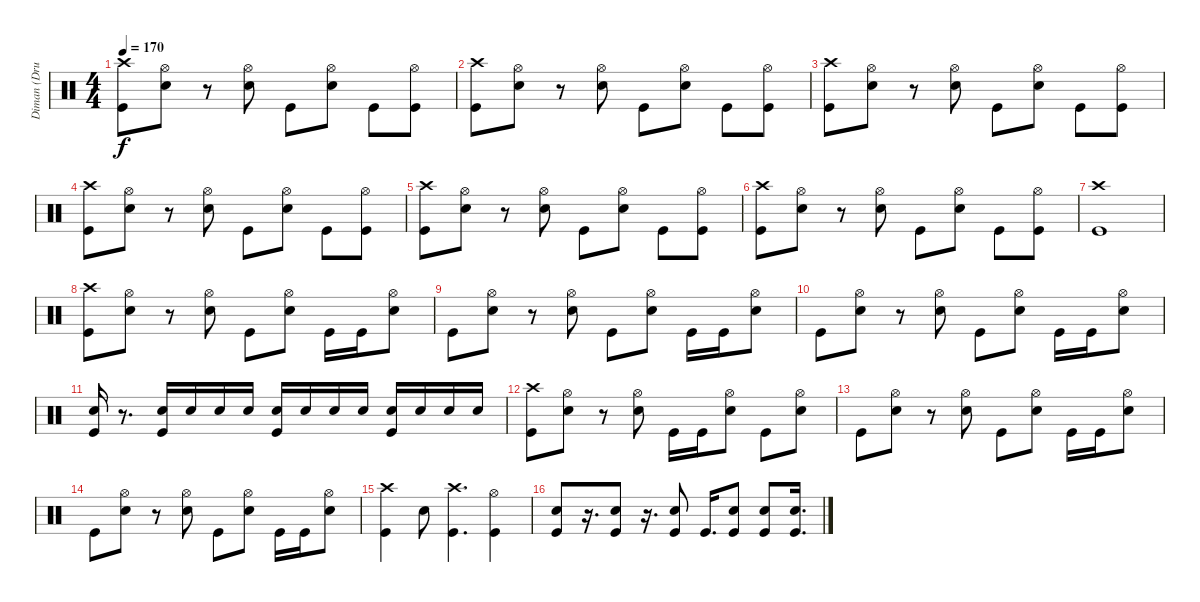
\track ("Diman (Drums)" "Diman (Dru") {instrument percussion}
\staff {score}
\articulation defaults
\ts (4 4)
\tempo 170
\clef neutral
\ks c
("Kick (hit)" "Crash high (hit)").8{dy f} ("Snare (hit) 2" "Hi-Hat (open)").8 r.8 ("Snare (hit) 2" "Hi-Hat (open)").8 "Kick (hit)".8 ("Snare (hit) 2" "Hi-Hat (open)").8 "Kick (hit)".8 ("Hi-Hat (open)" "Kick (hit)").8 |
("Kick (hit)" "Crash high (hit)").8 ("Snare (hit) 2" "Hi-Hat (open)").8 r.8 ("Snare (hit) 2" "Hi-Hat (open)").8 "Kick (hit)".8 ("Snare (hit) 2" "Hi-Hat (open)").8 "Kick (hit)".8 ("Hi-Hat (open)" "Kick (hit)").8 |
("Kick (hit)" "Crash high (hit)").8 ("Snare (hit) 2" "Hi-Hat (open)").8 r.8 ("Snare (hit) 2" "Hi-Hat (open)").8 "Kick (hit)".8 ("Snare (hit) 2" "Hi-Hat (open)").8 "Kick (hit)".8 ("Hi-Hat (open)" "Kick (hit)").8 |
("Kick (hit)" "Crash high (hit)").8 ("Snare (hit) 2" "Hi-Hat (open)").8 r.8 ("Snare (hit) 2" "Hi-Hat (open)").8 "Kick (hit)".8 ("Snare (hit) 2" "Hi-Hat (open)").8 "Kick (hit)".8 ("Hi-Hat (open)" "Kick (hit)").8 |
("Kick (hit)" "Crash high (hit)").8 ("Snare (hit) 2" "Hi-Hat (open)").8 r.8 ("Snare (hit) 2" "Hi-Hat (open)").8 "Kick (hit)".8 ("Snare (hit) 2" "Hi-Hat (open)").8 "Kick (hit)".8 ("Hi-Hat (open)" "Kick (hit)").8 |
("Kick (hit)" "Crash high (hit)").8 ("Snare (hit) 2" "Hi-Hat (open)").8 r.8 ("Snare (hit) 2" "Hi-Hat (open)").8 "Kick (hit)".8 ("Snare (hit) 2" "Hi-Hat (open)").8 "Kick (hit)".8 ("Hi-Hat (open)" "Kick (hit)").8 |
("Kick (hit)" "Crash high (hit)").1 |
("Crash high (hit)" "Kick (hit)").8 ("Snare (hit) 2" "Hi-Hat (open)").8 r.8 ("Snare (hit) 2" "Hi-Hat (open)").8 "Kick (hit)".8 ("Snare (hit) 2" "Hi-Hat (open)").8 "Kick (hit)".16 "Kick (hit)".16 ("Snare (hit) 2" "Hi-Hat (open)").8 |
"Kick (hit)".8 ("Snare (hit) 2" "Hi-Hat (open)").8 r.8 ("Snare (hit) 2" "Hi-Hat (open)").8 "Kick (hit)".8 ("Snare (hit) 2" "Hi-Hat (open)").8 "Kick (hit)".16 "Kick (hit)".16 ("Snare (hit) 2" "Hi-Hat (open)").8 |
"Kick (hit)".8 ("Snare (hit) 2" "Hi-Hat (open)").8 r.8 ("Snare (hit) 2" "Hi-Hat (open)").8 "Kick (hit)".8 ("Snare (hit) 2" "Hi-Hat (open)").8 "Kick (hit)".16 "Kick (hit)".16 ("Snare (hit) 2" "Hi-Hat (open)").8 |
("Kick (hit)" "Snare (hit) 2").16 r.8{d} ("Snare (hit) 2" "Kick (hit)").16 "Snare (hit) 2".16 "Snare (hit) 2".16 "Snare (hit) 2".16 ("Snare (hit) 2" "Kick (hit)").16 "Snare (hit) 2".16 "Snare (hit) 2".16 "Snare (hit) 2".16 ("Snare (hit) 2" "Kick (hit)").16 "Snare (hit) 2".16 "Snare (hit) 2".16 "Snare (hit) 2".16 |
("Crash high (hit)" "Kick (hit)").8 ("Snare (hit) 2" "Hi-Hat (open)").8 r.8 ("Snare (hit) 2" "Hi-Hat (open)").8 "Kick (hit)".16 "Kick (hit)".16 ("Snare (hit) 2" "Hi-Hat (open)").8 "Kick (hit)".8 ("Snare (hit) 2" "Hi-Hat (open)").8 |
"Kick (hit)".8 ("Snare (hit) 2" "Hi-Hat (open)").8 r.8 ("Snare (hit) 2" "Hi-Hat (open)").8 "Kick (hit)".8 ("Snare (hit) 2" "Hi-Hat (open)").8 "Kick (hit)".16 "Kick (hit)".16 ("Snare (hit) 2" "Hi-Hat (open)").8 |
"Kick (hit)".8 ("Snare (hit) 2" "Hi-Hat (open)").8 r.8 ("Snare (hit) 2" "Hi-Hat (open)").8 "Kick (hit)".8 ("Snare (hit) 2" "Hi-Hat (open)").8 "Kick (hit)".16 "Kick (hit)".16 ("Snare (hit) 2" "Hi-Hat (open)").8 |
("Crash high (hit)" "Kick (hit)").4 "Snare (hit) 2".8 ("Crash high (hit)" "Kick (hit)").4{d} ("Hi-Hat (open)" "Kick (hit)").4 |
("Snare (hit) 2" "Kick (hit)").8 r.16{d} ("Snare (hit) 2" "Kick (hit)").8 r.16{d} ("Snare (hit) 2" "Kick (hit)").8 "Kick (hit)".16{d} ("Snare (hit) 2" "Kick (hit)").8 ("Snare (hit) 2" "Kick (hit)").8 ("Snare (hit) 2" "Kick (hit)").16{d}
